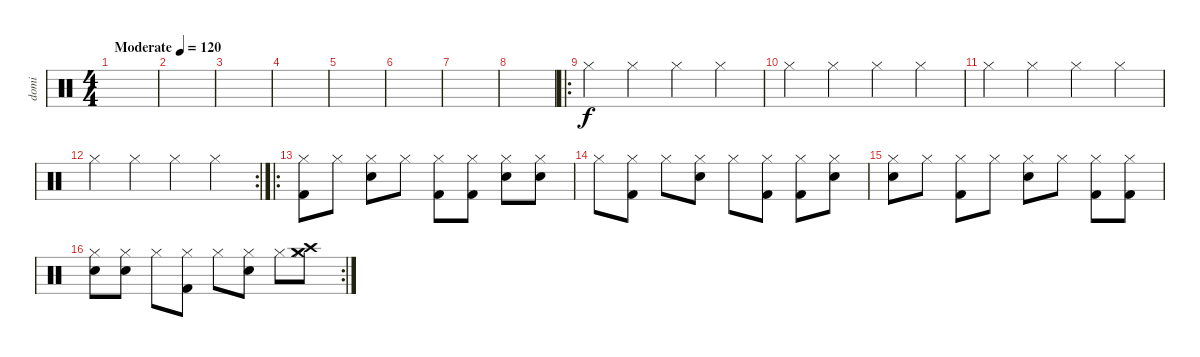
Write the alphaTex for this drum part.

\track ("domi" "domi") {instrument percussion}
\staff {score}
\articulation defaults
\ts (4 4)
\tempo (120 "Moderate")
\clef neutral
\ks c
|
|
|
|
|
|
|
|
\ro "Hi-Hat (closed)".4 "Hi-Hat (closed)".4 "Hi-Hat (closed)".4 "Hi-Hat (closed)".4
|
"Hi-Hat (closed)".4 "Hi-Hat (closed)".4 "Hi-Hat (closed)".4 "Hi-Hat (closed)".4 |
"Hi-Hat (closed)".4 "Hi-Hat (closed)".4 "Hi-Hat (closed)".4 "Hi-Hat (closed)".4 |
\rc 2 "Hi-Hat (closed)".4 "Hi-Hat (closed)".4 "Hi-Hat (closed)".4 "Hi-Hat (closed)".4
|
\ro
("Kick (hit) 2" "Hi-Hat (closed)").8 "Hi-Hat (closed)".8 ("Electric Snare (hit)" "Hi-Hat (closed)").8 "Hi-Hat (closed)".8 ("Kick (hit) 2" "Hi-Hat (closed)").8 ("Kick (hit) 2" "Hi-Hat (closed)").8 ("Snare (hit) 2" "Hi-Hat (closed)").8 ("Electric Snare (hit)" "Hi-Hat (closed)").8 |
"Hi-Hat (closed)".8 ("Kick (hit) 2" "Hi-Hat (closed)").8 "Hi-Hat (closed)".8 ("Electric Snare (hit)" "Hi-Hat (closed)").8 "Hi-Hat (closed)".8 ("Kick (hit) 2" "Hi-Hat (closed)").8 ("Kick (hit) 2" "Hi-Hat (closed)").8 ("Snare (hit) 2" "Hi-Hat (closed)").8 |
("Electric Snare (hit)" "Hi-Hat (closed)").8 "Hi-Hat (closed)".8 ("Kick (hit) 2" "Hi-Hat (closed)").8 "Hi-Hat (closed)".8 ("Electric Snare (hit)" "Hi-Hat (closed)").8 "Hi-Hat (closed)".8 ("Kick (hit) 2" "Hi-Hat (closed)").8 ("Kick (hit) 2" "Hi-Hat (closed)").8 |
\rc 2
("Snare (hit) 2" "Hi-Hat (closed)").8 ("Electric Snare (hit)" "Hi-Hat (closed)").8 "Hi-Hat (closed)".8 ("Kick (hit) 2" "Hi-Hat (closed)").8 "Hi-Hat (closed)".8 ("Electric Snare (hit)" "Hi-Hat (closed)").8 "Hi-Hat (closed)".8 ("Crash medium (hit)" "Crash high (hit)" "Hi-Hat (closed)").8
